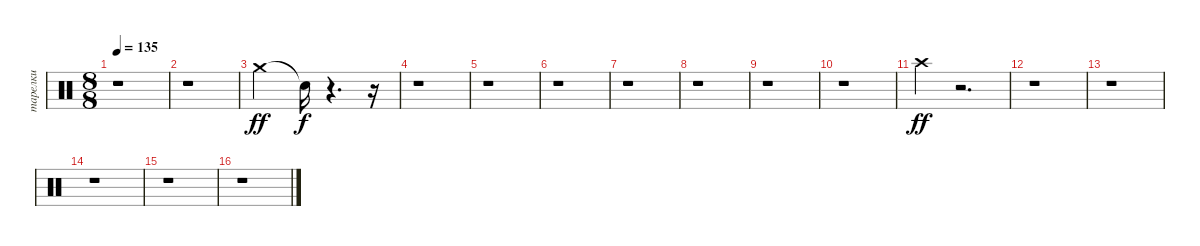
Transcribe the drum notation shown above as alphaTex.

\track ("тарелки" "тарелки") {instrument percussion}
\staff {score}
\articulation defaults
\ts (8 8)
\tempo 135
\clef neutral
\ks c
r.1{dy f} |
r.1 |
"Crash medium (hit)".2{dy ff} "Snare (hit)"{t}.16{dy f} r.4{d} r.16 |
r.1 |
r.1 |
r.1 |
r.1 |
r.1 |
r.1 |
r.1 |
"Crash high (hit)".4{dy ff} r.2{d} |
r.1 |
r.1 |
r.1 |
r.1 |
r.1
